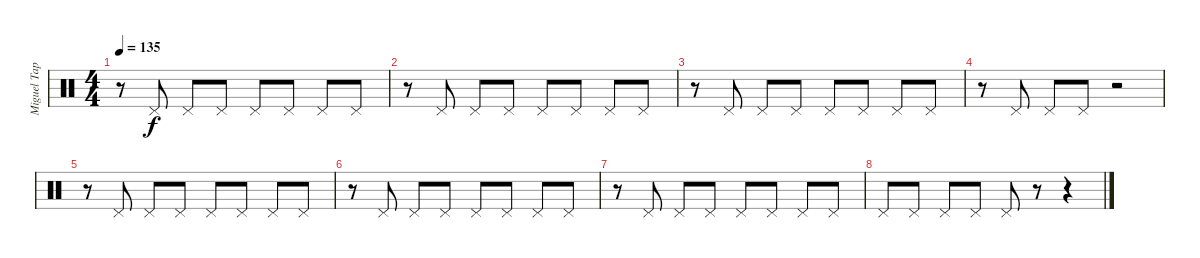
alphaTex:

\track ("Miguel Tapia" "Miguel Tap") {instrument percussion}
\staff {score}
\articulation defaults
\ts (4 4)
\tempo 135
\clef neutral
\ks c
r.8{dy f} "Pedal Hi-Hat (hit)".8 "Pedal Hi-Hat (hit)".8 "Pedal Hi-Hat (hit)".8 "Pedal Hi-Hat (hit)".8 "Pedal Hi-Hat (hit)".8 "Pedal Hi-Hat (hit)".8 "Pedal Hi-Hat (hit)".8 |
r.8 "Pedal Hi-Hat (hit)".8 "Pedal Hi-Hat (hit)".8 "Pedal Hi-Hat (hit)".8 "Pedal Hi-Hat (hit)".8 "Pedal Hi-Hat (hit)".8 "Pedal Hi-Hat (hit)".8 "Pedal Hi-Hat (hit)".8 |
r.8 "Pedal Hi-Hat (hit)".8 "Pedal Hi-Hat (hit)".8 "Pedal Hi-Hat (hit)".8 "Pedal Hi-Hat (hit)".8 "Pedal Hi-Hat (hit)".8 "Pedal Hi-Hat (hit)".8 "Pedal Hi-Hat (hit)".8 |
r.8 "Pedal Hi-Hat (hit)".8 "Pedal Hi-Hat (hit)".8 "Pedal Hi-Hat (hit)".8 r.2 |
r.8 "Pedal Hi-Hat (hit)".8 "Pedal Hi-Hat (hit)".8 "Pedal Hi-Hat (hit)".8 "Pedal Hi-Hat (hit)".8 "Pedal Hi-Hat (hit)".8 "Pedal Hi-Hat (hit)".8 "Pedal Hi-Hat (hit)".8 |
r.8 "Pedal Hi-Hat (hit)".8 "Pedal Hi-Hat (hit)".8 "Pedal Hi-Hat (hit)".8 "Pedal Hi-Hat (hit)".8 "Pedal Hi-Hat (hit)".8 "Pedal Hi-Hat (hit)".8 "Pedal Hi-Hat (hit)".8 |
r.8 "Pedal Hi-Hat (hit)".8 "Pedal Hi-Hat (hit)".8 "Pedal Hi-Hat (hit)".8 "Pedal Hi-Hat (hit)".8 "Pedal Hi-Hat (hit)".8 "Pedal Hi-Hat (hit)".8 "Pedal Hi-Hat (hit)".8 |
"Pedal Hi-Hat (hit)".8 "Pedal Hi-Hat (hit)".8 "Pedal Hi-Hat (hit)".8 "Pedal Hi-Hat (hit)".8 "Pedal Hi-Hat (hit)".8 r.8 r.4
